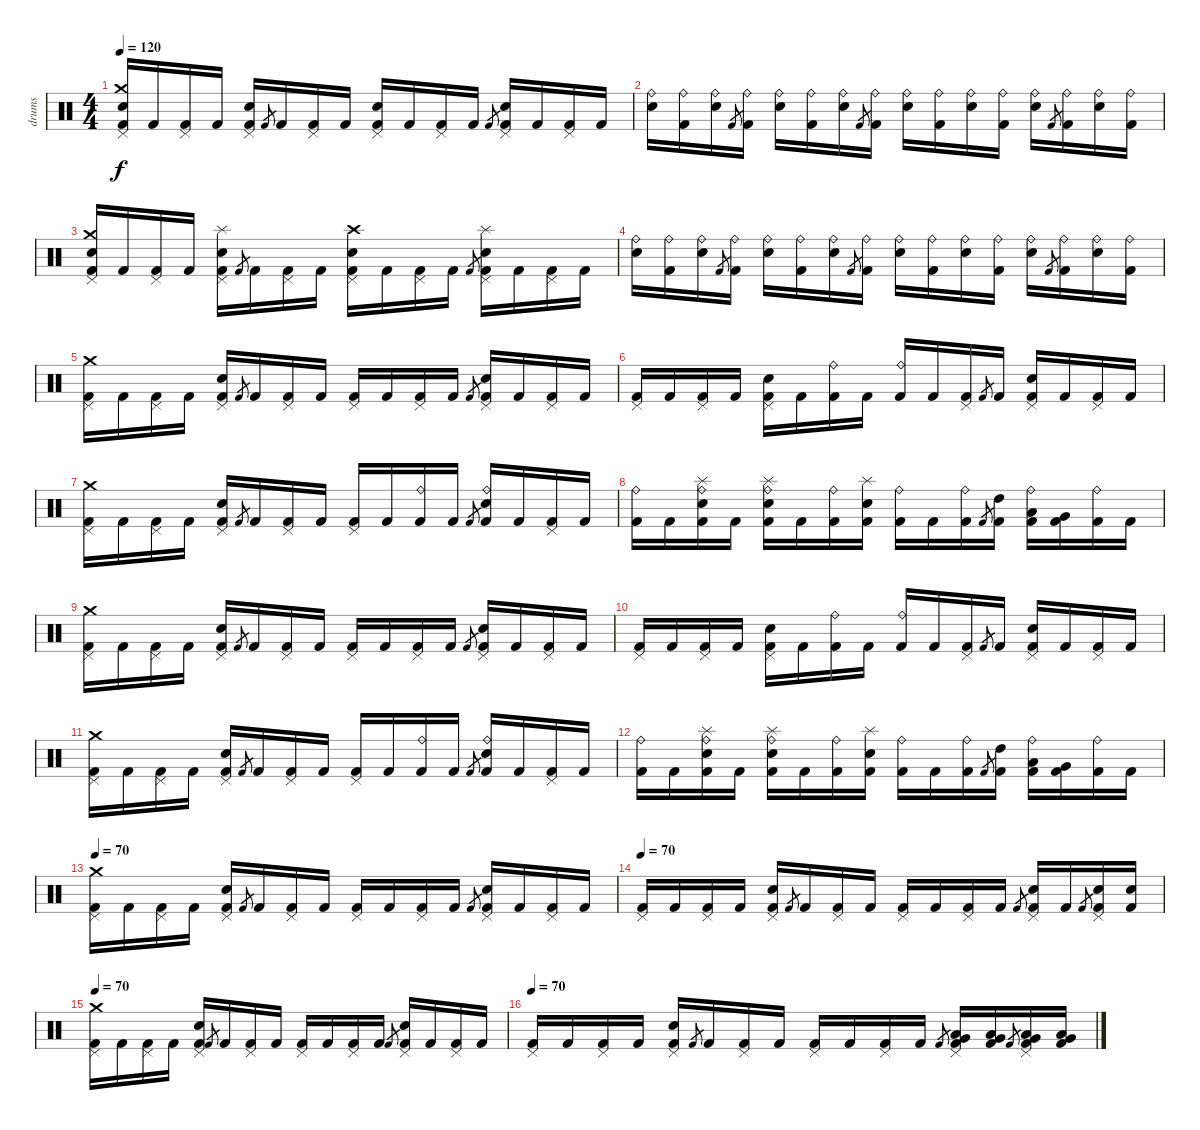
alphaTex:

\track ("drums" "drums") {instrument percussion}
\staff {score}
\articulation defaults
\ts (4 4)
\tempo 120
\clef neutral
\ks c
("Electric Snare (hit)" "Crash medium (hit)" "Pedal Hi-Hat (hit)" "Kick (hit) 2").16{dy f} "Kick (hit) 2".16 ("Pedal Hi-Hat (hit)" "Kick (hit) 2").16 "Kick (hit) 2".16 ("Electric Snare (hit)" "Pedal Hi-Hat (hit)" "Kick (hit) 2").16 "Kick (hit) 2".8{gr} "Kick (hit) 2".16 ("Pedal Hi-Hat (hit)" "Kick (hit) 2").16 "Kick (hit) 2".16 ("Electric Snare (hit)" "Pedal Hi-Hat (hit)" "Kick (hit) 2").16 "Kick (hit) 2".16 ("Pedal Hi-Hat (hit)" "Kick (hit) 2").16 "Kick (hit) 2".16 "Kick (hit) 2".8{gr} ("Electric Snare (hit)" "Pedal Hi-Hat (hit)" "Kick (hit) 2").16 "Kick (hit) 2".16 ("Pedal Hi-Hat (hit)" "Kick (hit) 2").16 "Kick (hit) 2".16 |
("Ride (bell)" "Electric Snare (hit)").16 ("Ride (bell)" "Kick (hit) 2").16 ("Ride (bell)" "Electric Snare (hit)").16 "Kick (hit) 2".8{gr} ("Ride (bell)" "Kick (hit) 2").16 ("Ride (bell)" "Electric Snare (hit)").16 ("Ride (bell)" "Kick (hit) 2").16 ("Ride (bell)" "Electric Snare (hit)").16 "Kick (hit) 2".8{gr} ("Ride (bell)" "Kick (hit) 2").16 ("Ride (bell)" "Electric Snare (hit)").16 ("Ride (bell)" "Kick (hit) 2").16 ("Ride (bell)" "Electric Snare (hit)").16 ("Ride (bell)" "Kick (hit) 2").16 ("Ride (bell)" "Electric Snare (hit)").16 "Kick (hit) 2".8{gr} ("Ride (bell)" "Kick (hit) 2").16 ("Ride (bell)" "Electric Snare (hit)").16 ("Ride (bell)" "Kick (hit) 2").16 |
("Electric Snare (hit)" "Crash medium (hit)" "Pedal Hi-Hat (hit)" "Kick (hit) 2").16 "Kick (hit) 2".16 ("Pedal Hi-Hat (hit)" "Kick (hit) 2").16 "Kick (hit) 2".16 ("Splash (hit)" "Electric Snare (hit)" "Pedal Hi-Hat (hit)" "Kick (hit) 2").16 "Kick (hit) 2".8{gr} "Kick (hit) 2".16 ("Pedal Hi-Hat (hit)" "Kick (hit) 2").16 "Kick (hit) 2".16 ("Crash high (hit)" "Electric Snare (hit)" "Pedal Hi-Hat (hit)" "Kick (hit) 2").16 "Kick (hit) 2".16 ("Pedal Hi-Hat (hit)" "Kick (hit) 2").16 "Kick (hit) 2".16 "Kick (hit) 2".8{gr} ("Splash (hit)" "Electric Snare (hit)" "Pedal Hi-Hat (hit)" "Kick (hit) 2").16 "Kick (hit) 2".16 ("Pedal Hi-Hat (hit)" "Kick (hit) 2").16 "Kick (hit) 2".16 |
("Ride (bell)" "Electric Snare (hit)").16 ("Ride (bell)" "Kick (hit) 2").16 ("Ride (bell)" "Electric Snare (hit)").16 "Kick (hit) 2".8{gr} ("Ride (bell)" "Kick (hit) 2").16 ("Ride (bell)" "Electric Snare (hit)").16 ("Ride (bell)" "Kick (hit) 2").16 ("Ride (bell)" "Electric Snare (hit)").16 "Kick (hit) 2".8{gr} ("Ride (bell)" "Kick (hit) 2").16 ("Ride (bell)" "Electric Snare (hit)").16 ("Ride (bell)" "Kick (hit) 2").16 ("Ride (bell)" "Electric Snare (hit)").16 ("Ride (bell)" "Kick (hit) 2").16 ("Ride (bell)" "Electric Snare (hit)").16 "Kick (hit) 2".8{gr} ("Ride (bell)" "Kick (hit) 2").16 ("Ride (bell)" "Electric Snare (hit)").16 ("Ride (bell)" "Kick (hit) 2").16 |
("Crash medium (hit)" "Pedal Hi-Hat (hit)" "Kick (hit) 2").16 "Kick (hit) 2".16 ("Pedal Hi-Hat (hit)" "Kick (hit) 2").16 "Kick (hit) 2".16 ("Electric Snare (hit)" "Pedal Hi-Hat (hit)" "Kick (hit) 2").16 "Kick (hit) 2".8{gr} "Kick (hit) 2".16 ("Pedal Hi-Hat (hit)" "Kick (hit) 2").16 "Kick (hit) 2".16 ("Pedal Hi-Hat (hit)" "Kick (hit) 2").16 "Kick (hit) 2".16 ("Pedal Hi-Hat (hit)" "Kick (hit) 2").16 "Kick (hit) 2".16 "Kick (hit) 2".8{gr} ("Electric Snare (hit)" "Pedal Hi-Hat (hit)" "Kick (hit) 2").16 "Kick (hit) 2".16 ("Pedal Hi-Hat (hit)" "Kick (hit) 2").16 "Kick (hit) 2".16 |
("Pedal Hi-Hat (hit)" "Kick (hit) 2").16 "Kick (hit) 2".16 ("Pedal Hi-Hat (hit)" "Kick (hit) 2").16 "Kick (hit) 2".16 ("Electric Snare (hit)" "Pedal Hi-Hat (hit)" "Kick (hit) 2").16 "Kick (hit) 2".16 ("Ride (bell)" "Kick (hit) 2").16 "Kick (hit) 2".16 ("Ride (bell)" "Kick (hit) 2").16 "Kick (hit) 2".16 ("Pedal Hi-Hat (hit)" "Kick (hit) 2").16 "Kick (hit) 2".8{gr} "Kick (hit) 2".16 ("Electric Snare (hit)" "Pedal Hi-Hat (hit)" "Kick (hit) 2").16 "Kick (hit) 2".16 ("Pedal Hi-Hat (hit)" "Kick (hit) 2").16 "Kick (hit) 2".16 |
("Crash medium (hit)" "Pedal Hi-Hat (hit)" "Kick (hit) 2").16 "Kick (hit) 2".16 ("Pedal Hi-Hat (hit)" "Kick (hit) 2").16 "Kick (hit) 2".16 ("Electric Snare (hit)" "Pedal Hi-Hat (hit)" "Kick (hit) 2").16 "Kick (hit) 2".8{gr} "Kick (hit) 2".16 ("Pedal Hi-Hat (hit)" "Kick (hit) 2").16 "Kick (hit) 2".16 ("Pedal Hi-Hat (hit)" "Kick (hit) 2").16 "Kick (hit) 2".16 ("Ride (bell)" "Kick (hit) 2").16 "Kick (hit) 2".16 "Kick (hit) 2".8{gr} ("Ride (bell)" "Electric Snare (hit)" "Kick (hit) 2").16 "Kick (hit) 2".16 ("Pedal Hi-Hat (hit)" "Kick (hit) 2").16 "Kick (hit) 2".16 |
("Ride (bell)" "Kick (hit) 2").16 "Kick (hit) 2".16 ("Splash (hit)" "Electric Snare (hit)" "Ride (bell)" "Kick (hit) 2").16 "Kick (hit) 2".16 ("Splash (hit)" "Electric Snare (hit)" "Ride (bell)" "Kick (hit) 2").16 "Kick (hit) 2".16 ("Ride (bell)" "Kick (hit) 2").16 ("Splash (hit)" "Electric Snare (hit)" "Kick (hit) 2").16 ("Ride (bell)" "Kick (hit) 2").16 "Kick (hit) 2".16 ("Ride (bell)" "Kick (hit) 2").16 "Kick (hit) 2".8{gr} ("High Tom (hit)" "Kick (hit) 2").16 ("Low Tom (hit)" "Ride (bell)" "Kick (hit) 2").16 ("Very Low Tom (hit)" "Kick (hit) 2").16 ("Ride (bell)" "Kick (hit) 2").16 "Kick (hit) 2".16 |
("Crash medium (hit)" "Pedal Hi-Hat (hit)" "Kick (hit) 2").16 "Kick (hit) 2".16 ("Pedal Hi-Hat (hit)" "Kick (hit) 2").16 "Kick (hit) 2".16 ("Electric Snare (hit)" "Pedal Hi-Hat (hit)" "Kick (hit) 2").16 "Kick (hit) 2".8{gr} "Kick (hit) 2".16 ("Pedal Hi-Hat (hit)" "Kick (hit) 2").16 "Kick (hit) 2".16 ("Pedal Hi-Hat (hit)" "Kick (hit) 2").16 "Kick (hit) 2".16 ("Pedal Hi-Hat (hit)" "Kick (hit) 2").16 "Kick (hit) 2".16 "Kick (hit) 2".8{gr} ("Electric Snare (hit)" "Pedal Hi-Hat (hit)" "Kick (hit) 2").16 "Kick (hit) 2".16 ("Pedal Hi-Hat (hit)" "Kick (hit) 2").16 "Kick (hit) 2".16 |
("Pedal Hi-Hat (hit)" "Kick (hit) 2").16 "Kick (hit) 2".16 ("Pedal Hi-Hat (hit)" "Kick (hit) 2").16 "Kick (hit) 2".16 ("Electric Snare (hit)" "Pedal Hi-Hat (hit)" "Kick (hit) 2").16 "Kick (hit) 2".16 ("Ride (bell)" "Kick (hit) 2").16 "Kick (hit) 2".16 ("Ride (bell)" "Kick (hit) 2").16 "Kick (hit) 2".16 ("Pedal Hi-Hat (hit)" "Kick (hit) 2").16 "Kick (hit) 2".8{gr} "Kick (hit) 2".16 ("Electric Snare (hit)" "Pedal Hi-Hat (hit)" "Kick (hit) 2").16 "Kick (hit) 2".16 ("Pedal Hi-Hat (hit)" "Kick (hit) 2").16 "Kick (hit) 2".16 |
("Crash medium (hit)" "Pedal Hi-Hat (hit)" "Kick (hit) 2").16 "Kick (hit) 2".16 ("Pedal Hi-Hat (hit)" "Kick (hit) 2").16 "Kick (hit) 2".16 ("Electric Snare (hit)" "Pedal Hi-Hat (hit)" "Kick (hit) 2").16 "Kick (hit) 2".8{gr} "Kick (hit) 2".16 ("Pedal Hi-Hat (hit)" "Kick (hit) 2").16 "Kick (hit) 2".16 ("Pedal Hi-Hat (hit)" "Kick (hit) 2").16 "Kick (hit) 2".16 ("Ride (bell)" "Kick (hit) 2").16 "Kick (hit) 2".16 "Kick (hit) 2".8{gr} ("Ride (bell)" "Electric Snare (hit)" "Kick (hit) 2").16 "Kick (hit) 2".16 ("Pedal Hi-Hat (hit)" "Kick (hit) 2").16 "Kick (hit) 2".16 |
("Ride (bell)" "Kick (hit) 2").16 "Kick (hit) 2".16 ("Splash (hit)" "Electric Snare (hit)" "Ride (bell)" "Kick (hit) 2").16 "Kick (hit) 2".16 ("Splash (hit)" "Electric Snare (hit)" "Ride (bell)" "Kick (hit) 2").16 "Kick (hit) 2".16 ("Ride (bell)" "Kick (hit) 2").16 ("Splash (hit)" "Electric Snare (hit)" "Kick (hit) 2").16 ("Ride (bell)" "Kick (hit) 2").16 "Kick (hit) 2".16 ("Ride (bell)" "Kick (hit) 2").16 "Kick (hit) 2".8{gr} ("High Tom (hit)" "Kick (hit) 2").16 ("Low Tom (hit)" "Ride (bell)" "Kick (hit) 2").16 ("Very Low Tom (hit)" "Kick (hit) 2").16 ("Ride (bell)" "Kick (hit) 2").16 "Kick (hit) 2".16 |
\tempo 70
("Crash medium (hit)" "Pedal Hi-Hat (hit)" "Kick (hit) 2").16 "Kick (hit) 2".16 ("Pedal Hi-Hat (hit)" "Kick (hit) 2").16 "Kick (hit) 2".16 ("Electric Snare (hit)" "Pedal Hi-Hat (hit)" "Kick (hit) 2").16 "Kick (hit) 2".8{gr} "Kick (hit) 2".16 ("Pedal Hi-Hat (hit)" "Kick (hit) 2").16 "Kick (hit) 2".16 ("Pedal Hi-Hat (hit)" "Kick (hit) 2").16 "Kick (hit) 2".16 ("Pedal Hi-Hat (hit)" "Kick (hit) 2").16 "Kick (hit) 2".16 "Kick (hit) 2".8{gr} ("Electric Snare (hit)" "Pedal Hi-Hat (hit)" "Kick (hit) 2").16 "Kick (hit) 2".16 ("Pedal Hi-Hat (hit)" "Kick (hit) 2").16 "Kick (hit) 2".16 |
\tempo 70
("Pedal Hi-Hat (hit)" "Kick (hit) 2").16 "Kick (hit) 2".16 ("Pedal Hi-Hat (hit)" "Kick (hit) 2").16 "Kick (hit) 2".16 ("Electric Snare (hit)" "Pedal Hi-Hat (hit)" "Kick (hit) 2").16 "Kick (hit) 2".8{gr} "Kick (hit) 2".16 ("Pedal Hi-Hat (hit)" "Kick (hit) 2").16 "Kick (hit) 2".16 ("Pedal Hi-Hat (hit)" "Kick (hit) 2").16 "Kick (hit) 2".16 ("Pedal Hi-Hat (hit)" "Kick (hit) 2").16 "Kick (hit) 2".16 "Kick (hit) 2".8{gr} ("Electric Snare (hit)" "Pedal Hi-Hat (hit)" "Kick (hit) 2").16 "Kick (hit) 2".16 "Kick (hit) 2".8{gr} ("Electric Snare (hit)" "Pedal Hi-Hat (hit)" "Kick (hit) 2").16 ("Electric Snare (hit)" "Kick (hit) 2").16 |
\tempo 70
("Crash medium (hit)" "Pedal Hi-Hat (hit)" "Kick (hit) 2").16 "Kick (hit) 2".16 ("Pedal Hi-Hat (hit)" "Kick (hit) 2").16 "Kick (hit) 2".16 ("Electric Snare (hit)" "Pedal Hi-Hat (hit)" "Kick (hit) 2").16 "Kick (hit) 2".8{gr} "Kick (hit) 2".16 ("Pedal Hi-Hat (hit)" "Kick (hit) 2").16 "Kick (hit) 2".16 ("Pedal Hi-Hat (hit)" "Kick (hit) 2").16 "Kick (hit) 2".16 ("Pedal Hi-Hat (hit)" "Kick (hit) 2").16 "Kick (hit) 2".16 "Kick (hit) 2".8{gr} ("Electric Snare (hit)" "Pedal Hi-Hat (hit)" "Kick (hit) 2").16 "Kick (hit) 2".16 ("Pedal Hi-Hat (hit)" "Kick (hit) 2").16 "Kick (hit) 2".16 |
\tempo 70
("Pedal Hi-Hat (hit)" "Kick (hit) 2").16 "Kick (hit) 2".16 ("Pedal Hi-Hat (hit)" "Kick (hit) 2").16 "Kick (hit) 2".16 ("Electric Snare (hit)" "Pedal Hi-Hat (hit)" "Kick (hit) 2").16 "Kick (hit) 2".8{gr} "Kick (hit) 2".16 ("Pedal Hi-Hat (hit)" "Kick (hit) 2").16 "Kick (hit) 2".16 ("Pedal Hi-Hat (hit)" "Kick (hit) 2").16 "Kick (hit) 2".16 ("Pedal Hi-Hat (hit)" "Kick (hit) 2").16 "Kick (hit) 2".16 "Kick (hit) 2".8{gr} ("Very Low Tom (hit)" "Low Floor Tom (hit)" "Pedal Hi-Hat (hit)" "Kick (hit) 2").16 ("Very Low Tom (hit)" "Low Floor Tom (hit)" "Kick (hit) 2").16 "Kick (hit) 2".8{gr} ("Very Low Tom (hit)" "Low Floor Tom (hit)" "Pedal Hi-Hat (hit)" "Kick (hit) 2").16 ("Very Low Tom (hit)" "Low Floor Tom (hit)" "Kick (hit) 2").16
